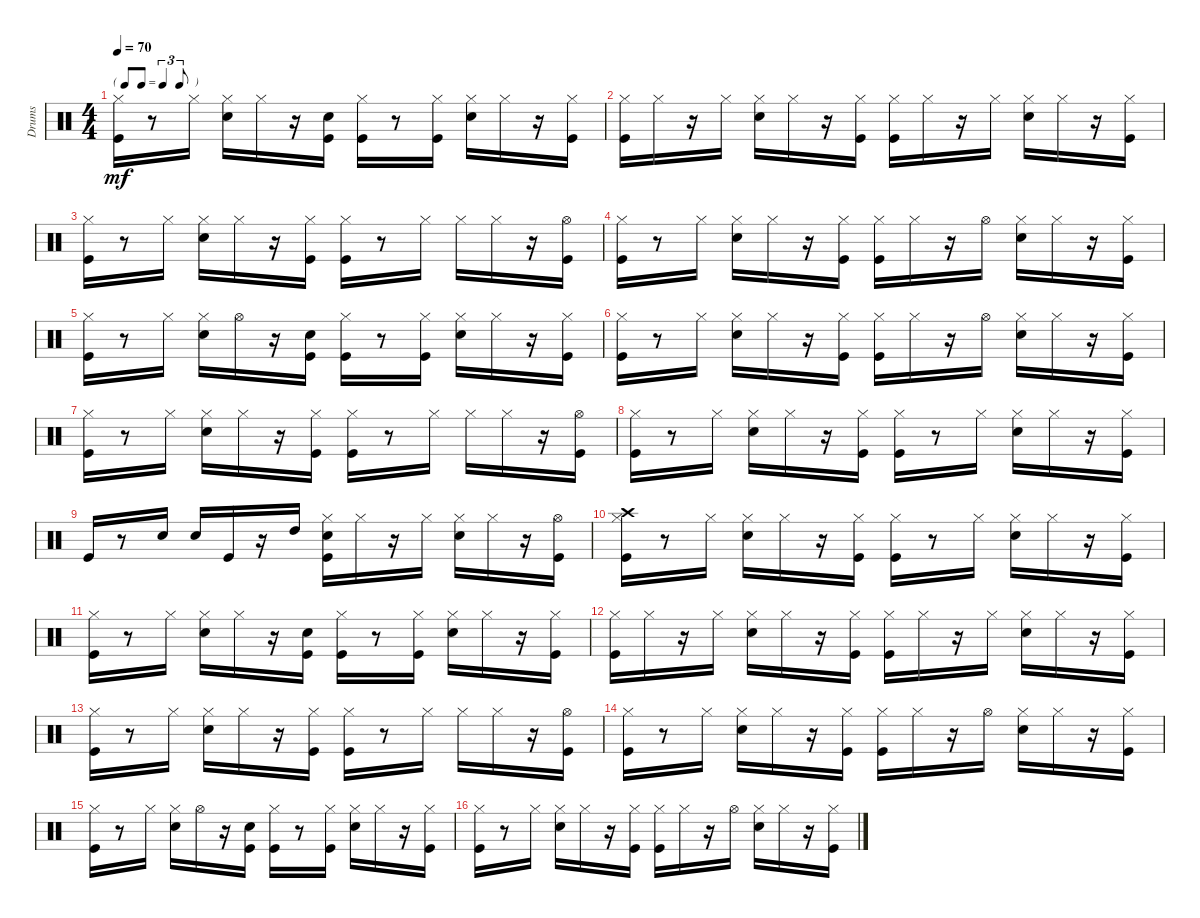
\track ("Drums" "Drums") {instrument percussion}
\staff {score}
\articulation defaults
\ts (4 4)
\tf triplet8th
\tempo 70
\clef neutral
\ks c
("Kick (hit)" "Hi-Hat (closed)").16{dy mf} r.8 "Hi-Hat (closed)".16 ("Snare (hit) 2" "Hi-Hat (closed)").16 "Hi-Hat (closed)".16 r.16 ("Kick (hit)" "Snare (hit) 2").16 ("Kick (hit)" "Hi-Hat (closed)").16 r.8 ("Kick (hit)" "Hi-Hat (closed)").16 ("Snare (hit) 2" "Hi-Hat (closed)").16 "Hi-Hat (closed)".16 r.16 ("Kick (hit)" "Hi-Hat (closed)").16 |
("Kick (hit)" "Hi-Hat (closed)").16 "Hi-Hat (closed)".16 r.16 "Hi-Hat (closed)".16 ("Snare (hit) 2" "Hi-Hat (closed)").16 "Hi-Hat (closed)".16 r.16 ("Kick (hit)" "Hi-Hat (closed)").16 ("Kick (hit)" "Hi-Hat (closed)").16 "Hi-Hat (closed)".16 r.16 "Hi-Hat (closed)".16 ("Snare (hit) 2" "Hi-Hat (closed)").16 "Hi-Hat (closed)".16 r.16 ("Kick (hit)" "Hi-Hat (closed)").16 |
("Kick (hit)" "Hi-Hat (closed)").16 r.8 "Hi-Hat (closed)".16 ("Snare (hit) 2" "Hi-Hat (closed)").16 "Hi-Hat (closed)".16 r.16 ("Kick (hit)" "Hi-Hat (closed)").16 ("Kick (hit)" "Hi-Hat (closed)").16 r.8 "Hi-Hat (closed)".16 "Hi-Hat (closed)".16 "Hi-Hat (closed)".16 r.16 ("Kick (hit)" "Hi-Hat (open)").16 |
("Kick (hit)" "Hi-Hat (closed)").16 r.8 "Hi-Hat (closed)".16 ("Snare (hit) 2" "Hi-Hat (closed)").16 "Hi-Hat (closed)".16 r.16 ("Kick (hit)" "Hi-Hat (closed)").16 ("Kick (hit)" "Hi-Hat (closed)").16 "Hi-Hat (closed)".16 r.16 "Hi-Hat (open)".16 ("Snare (hit) 2" "Hi-Hat (closed)").16 "Hi-Hat (closed)".16 r.16 ("Kick (hit)" "Hi-Hat (closed)").16 |
("Kick (hit)" "Hi-Hat (closed)").16 r.8 "Hi-Hat (closed)".16 ("Snare (hit) 2" "Hi-Hat (closed)").16 "Hi-Hat (open)".16 r.16 ("Kick (hit)" "Snare (hit) 2").16 ("Kick (hit)" "Hi-Hat (closed)").16 r.8 ("Kick (hit)" "Hi-Hat (closed)").16 ("Snare (hit) 2" "Hi-Hat (closed)").16 "Hi-Hat (closed)".16 r.16 ("Kick (hit)" "Hi-Hat (closed)").16 |
("Kick (hit)" "Hi-Hat (closed)").16 r.8 "Hi-Hat (closed)".16 ("Snare (hit) 2" "Hi-Hat (closed)").16 "Hi-Hat (closed)".16 r.16 ("Kick (hit)" "Hi-Hat (closed)").16 ("Kick (hit)" "Hi-Hat (closed)").16 "Hi-Hat (closed)".16 r.16 "Hi-Hat (open)".16 ("Snare (hit) 2" "Hi-Hat (closed)").16 "Hi-Hat (closed)".16 r.16 ("Kick (hit)" "Hi-Hat (closed)").16 |
("Kick (hit)" "Hi-Hat (closed)").16 r.8 "Hi-Hat (closed)".16 ("Snare (hit) 2" "Hi-Hat (closed)").16 "Hi-Hat (closed)".16 r.16 ("Kick (hit)" "Hi-Hat (closed)").16 ("Kick (hit)" "Hi-Hat (closed)").16 r.8 "Hi-Hat (closed)".16 "Hi-Hat (closed)".16 "Hi-Hat (closed)".16 r.16 ("Kick (hit)" "Hi-Hat (open)").16 |
("Kick (hit)" "Hi-Hat (closed)").16 r.8 "Hi-Hat (closed)".16 ("Snare (hit) 2" "Hi-Hat (closed)").16 "Hi-Hat (closed)".16 r.16 ("Kick (hit)" "Hi-Hat (closed)").16 ("Kick (hit)" "Hi-Hat (closed)").16 r.8 "Hi-Hat (closed)".16 ("Snare (hit) 2" "Hi-Hat (closed)").16 "Hi-Hat (closed)".16 r.16 ("Kick (hit)" "Hi-Hat (closed)").16 |
"Kick (hit)".16 r.8 "Snare (hit) 2".16 "Snare (hit) 2".16 "Kick (hit)".16 r.16 "High Tom (hit)".16 ("Kick (hit)" "Snare (hit) 2" "Hi-Hat (closed)").16 "Hi-Hat (closed)".16 r.16 "Hi-Hat (closed)".16 ("Snare (hit) 2" "Hi-Hat (closed)").16 "Hi-Hat (closed)".16 r.16 ("Kick (hit)" "Hi-Hat (open)").16 |
("Kick (hit)" "Hi-Hat (closed)" "Crash high (hit)").16 r.8 "Hi-Hat (closed)".16 ("Snare (hit) 2" "Hi-Hat (closed)").16 "Hi-Hat (closed)".16 r.16 ("Kick (hit)" "Hi-Hat (closed)").16 ("Kick (hit)" "Hi-Hat (closed)").16 r.8 "Hi-Hat (closed)".16 ("Snare (hit) 2" "Hi-Hat (closed)").16 "Hi-Hat (closed)".16 r.16 ("Kick (hit)" "Hi-Hat (closed)").16 |
("Kick (hit)" "Hi-Hat (closed)").16 r.8 "Hi-Hat (closed)".16 ("Snare (hit) 2" "Hi-Hat (closed)").16 "Hi-Hat (closed)".16 r.16 ("Kick (hit)" "Snare (hit) 2").16 ("Kick (hit)" "Hi-Hat (closed)").16 r.8 ("Kick (hit)" "Hi-Hat (closed)").16 ("Snare (hit) 2" "Hi-Hat (closed)").16 "Hi-Hat (closed)".16 r.16 ("Kick (hit)" "Hi-Hat (closed)").16 |
("Kick (hit)" "Hi-Hat (closed)").16 "Hi-Hat (closed)".16 r.16 "Hi-Hat (closed)".16 ("Snare (hit) 2" "Hi-Hat (closed)").16 "Hi-Hat (closed)".16 r.16 ("Kick (hit)" "Hi-Hat (closed)").16 ("Kick (hit)" "Hi-Hat (closed)").16 "Hi-Hat (closed)".16 r.16 "Hi-Hat (closed)".16 ("Snare (hit) 2" "Hi-Hat (closed)").16 "Hi-Hat (closed)".16 r.16 ("Kick (hit)" "Hi-Hat (closed)").16 |
("Kick (hit)" "Hi-Hat (closed)").16 r.8 "Hi-Hat (closed)".16 ("Snare (hit) 2" "Hi-Hat (closed)").16 "Hi-Hat (closed)".16 r.16 ("Kick (hit)" "Hi-Hat (closed)").16 ("Kick (hit)" "Hi-Hat (closed)").16 r.8 "Hi-Hat (closed)".16 "Hi-Hat (closed)".16 "Hi-Hat (closed)".16 r.16 ("Kick (hit)" "Hi-Hat (open)").16 |
("Kick (hit)" "Hi-Hat (closed)").16 r.8 "Hi-Hat (closed)".16 ("Snare (hit) 2" "Hi-Hat (closed)").16 "Hi-Hat (closed)".16 r.16 ("Kick (hit)" "Hi-Hat (closed)").16 ("Kick (hit)" "Hi-Hat (closed)").16 "Hi-Hat (closed)".16 r.16 "Hi-Hat (open)".16 ("Snare (hit) 2" "Hi-Hat (closed)").16 "Hi-Hat (closed)".16 r.16 ("Kick (hit)" "Hi-Hat (closed)").16 |
("Kick (hit)" "Hi-Hat (closed)").16 r.8 "Hi-Hat (closed)".16 ("Snare (hit) 2" "Hi-Hat (closed)").16 "Hi-Hat (open)".16 r.16 ("Kick (hit)" "Snare (hit) 2").16 ("Kick (hit)" "Hi-Hat (closed)").16 r.8 ("Kick (hit)" "Hi-Hat (closed)").16 ("Snare (hit) 2" "Hi-Hat (closed)").16 "Hi-Hat (closed)".16 r.16 ("Kick (hit)" "Hi-Hat (closed)").16 |
("Kick (hit)" "Hi-Hat (closed)").16 r.8 "Hi-Hat (closed)".16 ("Snare (hit) 2" "Hi-Hat (closed)").16 "Hi-Hat (closed)".16 r.16 ("Kick (hit)" "Hi-Hat (closed)").16 ("Kick (hit)" "Hi-Hat (closed)").16 "Hi-Hat (closed)".16 r.16 "Hi-Hat (open)".16 ("Snare (hit) 2" "Hi-Hat (closed)").16 "Hi-Hat (closed)".16 r.16 ("Kick (hit)" "Hi-Hat (closed)").16
